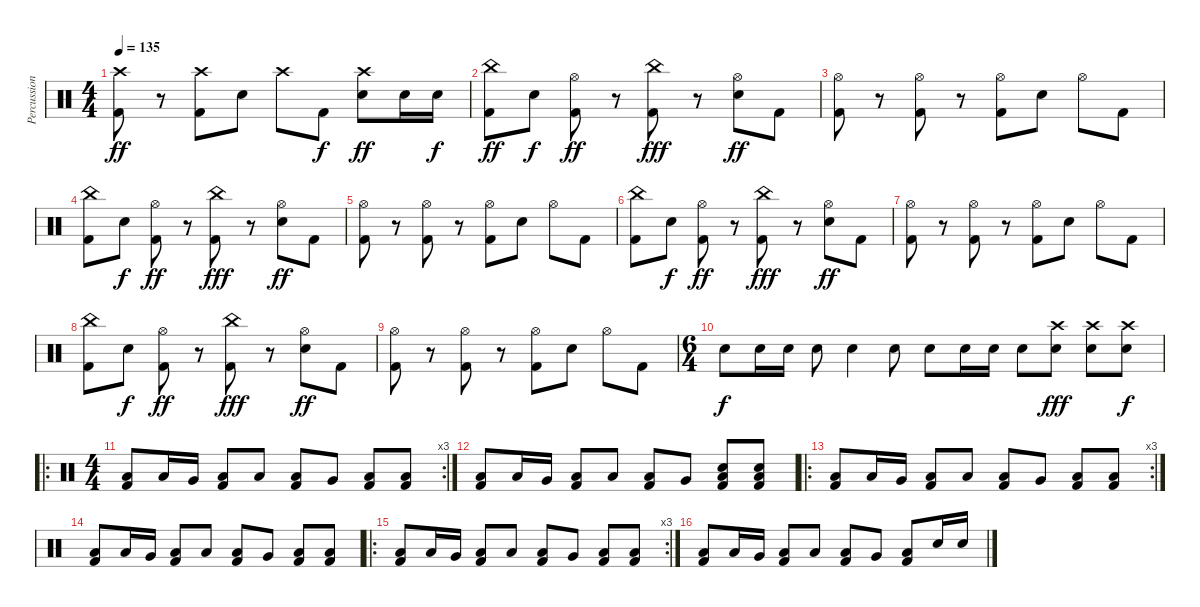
\track ("Percussion" "Percussion") {instrument percussion}
\staff {score}
\articulation defaults
\ts (4 4)
\tempo 135
\clef neutral
\ks c
("Crash high (hit)" "Kick (hit) 2").8{dy ff} r.8 ("Crash high (hit)" "Kick (hit) 2").8 "Electric Snare (hit)".8 "Crash high (hit)".8 "Kick (hit) 2".8{dy f} ("Crash high (hit)" "Electric Snare (hit)").8{dy ff} "Electric Snare (hit)".16 "Electric Snare (hit)".16{dy f} |
("China (hit)" "Kick (hit) 2").8{dy ff} "Electric Snare (hit)".8{dy f} ("Hi-Hat (open)" "Kick (hit) 2").8{dy ff} r.8 ("China (hit)" "Kick (hit) 2").8{dy fff} r.8 ("Hi-Hat (open)" "Electric Snare (hit)").8{dy ff} "Kick (hit) 2".8 |
("Hi-Hat (open)" "Kick (hit) 2").8 r.8 ("Hi-Hat (open)" "Kick (hit) 2").8 r.8 ("Hi-Hat (open)" "Kick (hit) 2").8 "Electric Snare (hit)".8 "Hi-Hat (open)".8 "Kick (hit) 2".8 |
("China (hit)" "Kick (hit) 2").8 "Electric Snare (hit)".8{dy f} ("Hi-Hat (open)" "Kick (hit) 2").8{dy ff} r.8 ("China (hit)" "Kick (hit) 2").8{dy fff} r.8 ("Hi-Hat (open)" "Electric Snare (hit)").8{dy ff} "Kick (hit) 2".8 |
("Hi-Hat (open)" "Kick (hit) 2").8 r.8 ("Hi-Hat (open)" "Kick (hit) 2").8 r.8 ("Hi-Hat (open)" "Kick (hit) 2").8 "Electric Snare (hit)".8 "Hi-Hat (open)".8 "Kick (hit) 2".8 |
("China (hit)" "Kick (hit) 2").8 "Electric Snare (hit)".8{dy f} ("Hi-Hat (open)" "Kick (hit) 2").8{dy ff} r.8 ("China (hit)" "Kick (hit) 2").8{dy fff} r.8 ("Hi-Hat (open)" "Electric Snare (hit)").8{dy ff} "Kick (hit) 2".8 |
("Hi-Hat (open)" "Kick (hit) 2").8 r.8 ("Hi-Hat (open)" "Kick (hit) 2").8 r.8 ("Hi-Hat (open)" "Kick (hit) 2").8 "Electric Snare (hit)".8 "Hi-Hat (open)".8 "Kick (hit) 2".8 |
("China (hit)" "Kick (hit) 2").8 "Electric Snare (hit)".8{dy f} ("Hi-Hat (open)" "Kick (hit) 2").8{dy ff} r.8 ("China (hit)" "Kick (hit) 2").8{dy fff} r.8 ("Hi-Hat (open)" "Electric Snare (hit)").8{dy ff} "Kick (hit) 2".8 |
("Hi-Hat (open)" "Kick (hit) 2").8 r.8 ("Hi-Hat (open)" "Kick (hit) 2").8 r.8 ("Hi-Hat (open)" "Kick (hit) 2").8 "Electric Snare (hit)".8 "Hi-Hat (open)".8 "Kick (hit) 2".8 |
\ts (6 4)
"Electric Snare (hit)".8{dy f} "Electric Snare (hit)".16 "Electric Snare (hit)".16 "Electric Snare (hit)".8 "Electric Snare (hit)".4 "Electric Snare (hit)".8 "Electric Snare (hit)".8 "Electric Snare (hit)".16 "Electric Snare (hit)".16 "Electric Snare (hit)".8 ("Crash high (hit)" "Electric Snare (hit)").8{dy fff} ("Crash high (hit)" "Electric Snare (hit)").8 ("Crash high (hit)" "Electric Snare (hit)").8{dy f} |
\ro
\rc 3
\ts (4 4)
("Low Floor Tom (hit)" "Kick (hit) 2").8 "Low Tom (hit)".16 "Very Low Tom (hit)".16 ("Low Floor Tom (hit)" "Kick (hit) 2").8 "Low Floor Tom (hit)".8 ("Low Floor Tom (hit)" "Kick (hit) 2").8 "Very Low Tom (hit)".8 ("Low Floor Tom (hit)" "Kick (hit) 2").8 ("Low Floor Tom (hit)" "Kick (hit) 2").8 |
("Low Floor Tom (hit)" "Kick (hit) 2").8 "Low Tom (hit)".16 "Very Low Tom (hit)".16 ("Low Floor Tom (hit)" "Kick (hit) 2").8 "Low Floor Tom (hit)".8 ("Low Floor Tom (hit)" "Kick (hit) 2").8 "Very Low Tom (hit)".8 ("Low Floor Tom (hit)" "Electric Snare (hit)" "Kick (hit) 2").8 ("Low Floor Tom (hit)" "Electric Snare (hit)" "Kick (hit) 2").8 |
\ro
\rc 3
("Low Floor Tom (hit)" "Kick (hit) 2").8 "Low Tom (hit)".16 "Very Low Tom (hit)".16 ("Low Floor Tom (hit)" "Kick (hit) 2").8 "Low Floor Tom (hit)".8 ("Low Floor Tom (hit)" "Kick (hit) 2").8 "Very Low Tom (hit)".8 ("Low Floor Tom (hit)" "Kick (hit) 2").8 ("Low Floor Tom (hit)" "Kick (hit) 2").8 |
("Low Floor Tom (hit)" "Kick (hit) 2").8 "Low Tom (hit)".16 "Very Low Tom (hit)".16 ("Low Floor Tom (hit)" "Kick (hit) 2").8 "Low Floor Tom (hit)".8 ("Low Floor Tom (hit)" "Kick (hit) 2").8 "Very Low Tom (hit)".8 ("Low Floor Tom (hit)" "Kick (hit) 2").8 ("Low Floor Tom (hit)" "Kick (hit) 2").8 |
\ro
\rc 3
("Low Floor Tom (hit)" "Kick (hit) 2").8 "Low Tom (hit)".16 "Very Low Tom (hit)".16 ("Low Floor Tom (hit)" "Kick (hit) 2").8 "Low Floor Tom (hit)".8 ("Low Floor Tom (hit)" "Kick (hit) 2").8 "Very Low Tom (hit)".8 ("Low Floor Tom (hit)" "Kick (hit) 2").8 ("Low Floor Tom (hit)" "Kick (hit) 2").8 |
("Low Floor Tom (hit)" "Kick (hit) 2").8 "Low Tom (hit)".16 "Very Low Tom (hit)".16 ("Low Floor Tom (hit)" "Kick (hit) 2").8 "Low Floor Tom (hit)".8 ("Low Floor Tom (hit)" "Kick (hit) 2").8 "Very Low Tom (hit)".8 ("Low Floor Tom (hit)" "Kick (hit) 2").8 "Electric Snare (hit)".16 "Electric Snare (hit)".16
